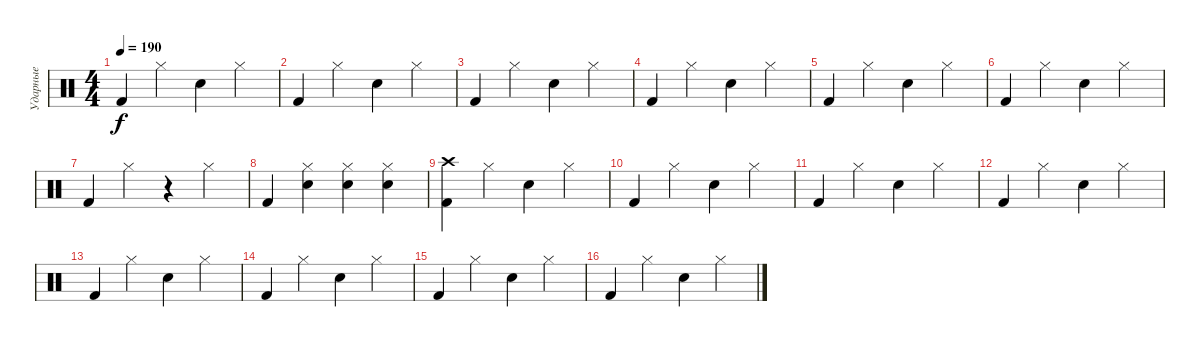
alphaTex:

\track ("Ударные" "Ударные") {instrument percussion}
\staff {score}
\articulation defaults
\ts (4 4)
\tempo 190
\clef neutral
\ks c "Kick (hit) 2".4{dy f} "Hi-Hat (closed)".4 "Snare (hit) 2".4 "Hi-Hat (closed)".4
|
"Kick (hit) 2".4 "Hi-Hat (closed)".4 "Snare (hit) 2".4 "Hi-Hat (closed)".4 |
"Kick (hit) 2".4 "Hi-Hat (closed)".4 "Snare (hit) 2".4 "Hi-Hat (closed)".4 |
"Kick (hit) 2".4 "Hi-Hat (closed)".4 "Snare (hit) 2".4 "Hi-Hat (closed)".4 |
"Kick (hit) 2".4 "Hi-Hat (closed)".4 "Snare (hit) 2".4 "Hi-Hat (closed)".4 |
"Kick (hit) 2".4 "Hi-Hat (closed)".4 "Snare (hit) 2".4 "Hi-Hat (closed)".4 |
"Kick (hit) 2".4 "Hi-Hat (closed)".4 r.4 "Hi-Hat (closed)".4 |
"Kick (hit) 2".4 ("Hi-Hat (closed)" "Snare (hit) 2").4 ("Hi-Hat (closed)" "Snare (hit) 2").4 ("Hi-Hat (closed)" "Snare (hit) 2").4 |
("Kick (hit) 2" "Crash high (hit)").4 "Hi-Hat (closed)".4 "Snare (hit) 2".4 "Hi-Hat (closed)".4 |
"Kick (hit) 2".4 "Hi-Hat (closed)".4 "Snare (hit) 2".4 "Hi-Hat (closed)".4 |
"Kick (hit) 2".4 "Hi-Hat (closed)".4 "Snare (hit) 2".4 "Hi-Hat (closed)".4 |
"Kick (hit) 2".4 "Hi-Hat (closed)".4 "Snare (hit) 2".4 "Hi-Hat (closed)".4 |
"Kick (hit) 2".4 "Hi-Hat (closed)".4 "Snare (hit) 2".4 "Hi-Hat (closed)".4 |
"Kick (hit) 2".4 "Hi-Hat (closed)".4 "Snare (hit) 2".4 "Hi-Hat (closed)".4 |
"Kick (hit) 2".4 "Hi-Hat (closed)".4 "Snare (hit) 2".4 "Hi-Hat (closed)".4 |
"Kick (hit) 2".4 "Hi-Hat (closed)".4 "Snare (hit) 2".4 "Hi-Hat (closed)".4
